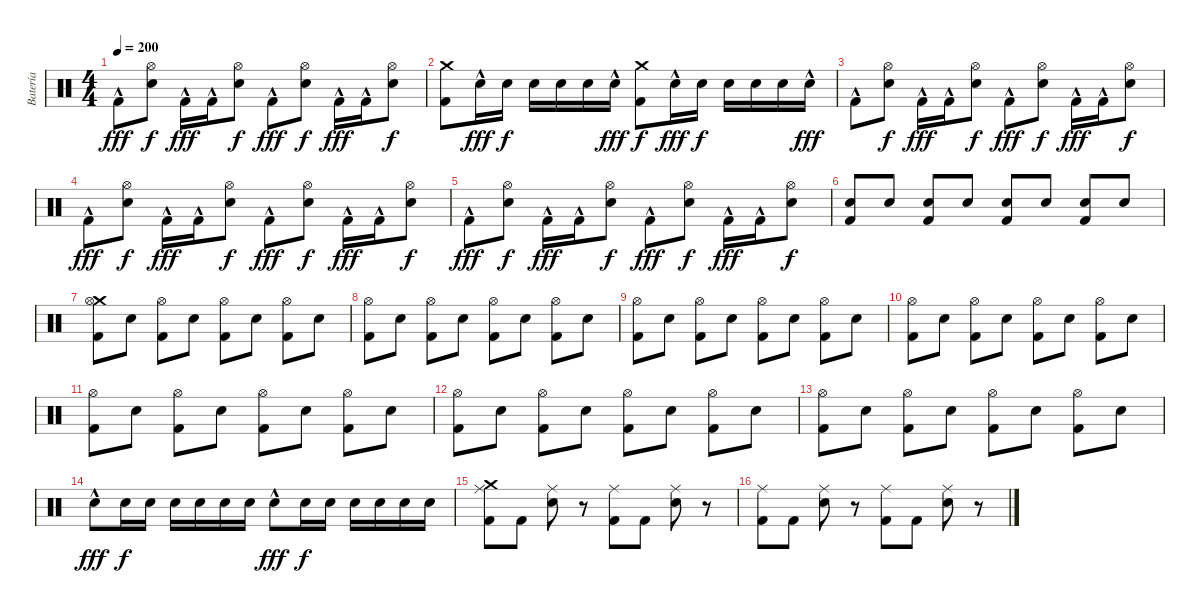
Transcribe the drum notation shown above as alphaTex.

\track ("Batería" "Batería") {instrument percussion bank 6}
\staff {score}
\articulation defaults
\ts (4 4)
\tempo 200
\clef neutral
\ks c "Kick (hit) 2"{hac}.8{dy fff}
("Snare (hit) 2" "Hi-Hat (open)").8{dy f} "Kick (hit) 2"{hac}.16{dy fff} "Kick (hit) 2"{hac}.16 ("Snare (hit) 2" "Hi-Hat (open)").8{dy f} "Kick (hit) 2"{hac}.8{dy fff} ("Snare (hit) 2" "Hi-Hat (open)").8{dy f} "Kick (hit) 2"{hac}.16{dy fff} "Kick (hit) 2"{hac}.16 ("Snare (hit) 2" "Hi-Hat (open)").8{dy f} |
("Crash medium (hit)" "Kick (hit) 2").8 "Snare (hit) 2"{hac}.16{dy fff} "Snare (hit) 2".16{dy f} "Snare (hit) 2".16 "Snare (hit) 2".16 "Snare (hit) 2".16 "Snare (hit) 2"{hac}.16{dy fff} ("Crash medium (hit)" "Kick (hit) 2").8{dy f} "Snare (hit) 2"{hac}.16{dy fff} "Snare (hit) 2".16{dy f} "Snare (hit) 2".16 "Snare (hit) 2".16 "Snare (hit) 2".16 "Snare (hit) 2"{hac}.16{dy fff} |
"Kick (hit) 2"{hac}.8 ("Snare (hit) 2" "Hi-Hat (open)").8{dy f} "Kick (hit) 2"{hac}.16{dy fff} "Kick (hit) 2"{hac}.16 ("Snare (hit) 2" "Hi-Hat (open)").8{dy f} "Kick (hit) 2"{hac}.8{dy fff} ("Snare (hit) 2" "Hi-Hat (open)").8{dy f} "Kick (hit) 2"{hac}.16{dy fff} "Kick (hit) 2"{hac}.16 ("Snare (hit) 2" "Hi-Hat (open)").8{dy f} |
"Kick (hit) 2"{hac}.8{dy fff} ("Snare (hit) 2" "Hi-Hat (open)").8{dy f} "Kick (hit) 2"{hac}.16{dy fff} "Kick (hit) 2"{hac}.16 ("Snare (hit) 2" "Hi-Hat (open)").8{dy f} "Kick (hit) 2"{hac}.8{dy fff} ("Snare (hit) 2" "Hi-Hat (open)").8{dy f} "Kick (hit) 2"{hac}.16{dy fff} "Kick (hit) 2"{hac}.16 ("Snare (hit) 2" "Hi-Hat (open)").8{dy f} |
"Kick (hit) 2"{hac}.8{dy fff} ("Snare (hit) 2" "Hi-Hat (open)").8{dy f} "Kick (hit) 2"{hac}.16{dy fff} "Kick (hit) 2"{hac}.16 ("Snare (hit) 2" "Hi-Hat (open)").8{dy f} "Kick (hit) 2"{hac}.8{dy fff} ("Snare (hit) 2" "Hi-Hat (open)").8{dy f} "Kick (hit) 2"{hac}.16{dy fff} "Kick (hit) 2"{hac}.16 ("Snare (hit) 2" "Hi-Hat (open)").8{dy f} |
("Snare (hit) 2" "Kick (hit) 2").8 "Snare (hit) 2".8 ("Snare (hit) 2" "Kick (hit) 2").8 "Snare (hit) 2".8 ("Snare (hit) 2" "Kick (hit) 2").8 "Snare (hit) 2".8 ("Snare (hit) 2" "Kick (hit) 2").8 "Snare (hit) 2".8 |
("Crash medium (hit)" "Hi-Hat (open)" "Kick (hit) 2").8 "Snare (hit) 2".8 ("Hi-Hat (open)" "Kick (hit) 2").8 "Snare (hit) 2".8 ("Hi-Hat (open)" "Kick (hit) 2").8 "Snare (hit) 2".8 ("Hi-Hat (open)" "Kick (hit) 2").8 "Snare (hit) 2".8 |
("Hi-Hat (open)" "Kick (hit) 2").8 "Snare (hit) 2".8 ("Hi-Hat (open)" "Kick (hit) 2").8 "Snare (hit) 2".8 ("Hi-Hat (open)" "Kick (hit) 2").8 "Snare (hit) 2".8 ("Hi-Hat (open)" "Kick (hit) 2").8 "Snare (hit) 2".8 |
("Hi-Hat (open)" "Kick (hit) 2").8 "Snare (hit) 2".8 ("Hi-Hat (open)" "Kick (hit) 2").8 "Snare (hit) 2".8 ("Hi-Hat (open)" "Kick (hit) 2").8 "Snare (hit) 2".8 ("Hi-Hat (open)" "Kick (hit) 2").8 "Snare (hit) 2".8 |
("Hi-Hat (open)" "Kick (hit) 2").8 "Snare (hit) 2".8 ("Hi-Hat (open)" "Kick (hit) 2").8 "Snare (hit) 2".8 ("Hi-Hat (open)" "Kick (hit) 2").8 "Snare (hit) 2".8 ("Hi-Hat (open)" "Kick (hit) 2").8 "Snare (hit) 2".8 |
("Hi-Hat (open)" "Kick (hit) 2").8 "Snare (hit) 2".8 ("Hi-Hat (open)" "Kick (hit) 2").8 "Snare (hit) 2".8 ("Hi-Hat (open)" "Kick (hit) 2").8 "Snare (hit) 2".8 ("Hi-Hat (open)" "Kick (hit) 2").8 "Snare (hit) 2".8 |
("Hi-Hat (open)" "Kick (hit) 2").8 "Snare (hit) 2".8 ("Hi-Hat (open)" "Kick (hit) 2").8 "Snare (hit) 2".8 ("Hi-Hat (open)" "Kick (hit) 2").8 "Snare (hit) 2".8 ("Hi-Hat (open)" "Kick (hit) 2").8 "Snare (hit) 2".8 |
("Hi-Hat (open)" "Kick (hit) 2").8 "Snare (hit) 2".8 ("Hi-Hat (open)" "Kick (hit) 2").8 "Snare (hit) 2".8 ("Hi-Hat (open)" "Kick (hit) 2").8 "Snare (hit) 2".8 ("Hi-Hat (open)" "Kick (hit) 2").8 "Snare (hit) 2".8 |
"Snare (hit) 2"{hac}.8{dy fff} "Snare (hit) 2".16{dy f} "Snare (hit) 2".16 "Snare (hit) 2".16 "Snare (hit) 2".16 "Snare (hit) 2".16 "Snare (hit) 2".16 "Snare (hit) 2"{hac}.8{dy fff} "Snare (hit) 2".16{dy f} "Snare (hit) 2".16 "Snare (hit) 2".16 "Snare (hit) 2".16 "Snare (hit) 2".16 "Snare (hit) 2".16 |
("Crash medium (hit)" "Ride (middle)" "Kick (hit) 2").8 "Kick (hit) 2".8 ("Snare (hit) 2" "Ride (middle)").8 r.8 ("Ride (middle)" "Kick (hit) 2").8 "Kick (hit) 2".8 ("Snare (hit) 2" "Ride (middle)").8 r.8 |
("Ride (middle)" "Kick (hit) 2").8 "Kick (hit) 2".8 ("Snare (hit) 2" "Ride (middle)").8 r.8 ("Ride (middle)" "Kick (hit) 2").8 "Kick (hit) 2".8 ("Snare (hit) 2" "Ride (middle)").8 r.8
